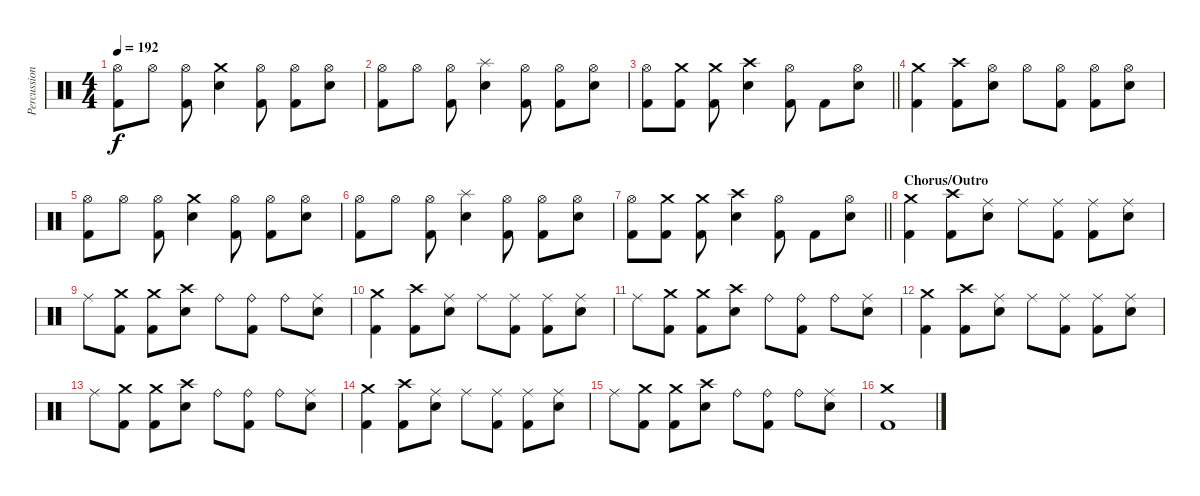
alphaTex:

\track ("Percussion" "Percussion") {instrument percussion}
\staff {score}
\articulation defaults
\ts (4 4)
\tempo 192
\clef neutral
\ks c
("Hi-Hat (open)" "Kick (hit) 2").8{dy f} "Hi-Hat (open)".8 ("Hi-Hat (open)" "Kick (hit) 2").8 ("Crash medium (hit)" "Electric Snare (hit)").4 ("Hi-Hat (open)" "Kick (hit) 2").8 ("Hi-Hat (open)" "Kick (hit) 2").8 ("Hi-Hat (open)" "Electric Snare (hit)").8 |
("Hi-Hat (open)" "Kick (hit) 2").8 "Hi-Hat (open)".8 ("Hi-Hat (open)" "Kick (hit) 2").8 ("Splash (hit)" "Electric Snare (hit)").4 ("Hi-Hat (open)" "Kick (hit) 2").8 ("Hi-Hat (open)" "Kick (hit) 2").8 ("Hi-Hat (open)" "Electric Snare (hit)").8 |
\barLineRight lightlight
("Hi-Hat (open)" "Kick (hit) 2").8 ("Crash medium (hit)" "Kick (hit) 2").8 ("Crash medium (hit)" "Kick (hit) 2").8 ("Crash high (hit)" "Electric Snare (hit)").4 ("Hi-Hat (open)" "Kick (hit) 2").8 "Kick (hit) 2".8 ("Hi-Hat (open)" "Electric Snare (hit)").8 |
("Crash medium (hit)" "Kick (hit) 2").4 ("Crash high (hit)" "Kick (hit) 2").8 ("Hi-Hat (open)" "Electric Snare (hit)").8 "Hi-Hat (open)".8 ("Hi-Hat (open)" "Kick (hit) 2").8 ("Hi-Hat (open)" "Kick (hit) 2").8 ("Hi-Hat (open)" "Electric Snare (hit)").8 |
("Hi-Hat (open)" "Kick (hit) 2").8 "Hi-Hat (open)".8 ("Hi-Hat (open)" "Kick (hit) 2").8 ("Crash medium (hit)" "Electric Snare (hit)").4 ("Hi-Hat (open)" "Kick (hit) 2").8 ("Hi-Hat (open)" "Kick (hit) 2").8 ("Hi-Hat (open)" "Electric Snare (hit)").8 |
("Hi-Hat (open)" "Kick (hit) 2").8 "Hi-Hat (open)".8 ("Hi-Hat (open)" "Kick (hit) 2").8 ("Splash (hit)" "Electric Snare (hit)").4 ("Hi-Hat (open)" "Kick (hit) 2").8 ("Hi-Hat (open)" "Kick (hit) 2").8 ("Hi-Hat (open)" "Electric Snare (hit)").8 |
\barLineRight lightlight
("Hi-Hat (open)" "Kick (hit) 2").8 ("Crash medium (hit)" "Kick (hit) 2").8 ("Crash medium (hit)" "Kick (hit) 2").8 ("Crash high (hit)" "Electric Snare (hit)").4 ("Hi-Hat (open)" "Kick (hit) 2").8 "Kick (hit) 2".8 ("Hi-Hat (open)" "Electric Snare (hit)").8 |
\section ("" "Chorus/Outro")
("Crash medium (hit)" "Kick (hit) 2").4 ("Crash high (hit)" "Kick (hit) 2").8 ("Ride (middle)" "Electric Snare (hit)").8 "Ride (middle)".8 ("Ride (middle)" "Kick (hit) 2").8 ("Ride (middle)" "Kick (hit) 2").8 ("Ride (middle)" "Electric Snare (hit)").8 |
"Ride (middle)".8 ("Crash medium (hit)" "Kick (hit) 2").8 ("Crash medium (hit)" "Kick (hit) 2").8 ("Crash high (hit)" "Electric Snare (hit)").8 "Ride (bell)".8 ("Ride (bell)" "Kick (hit) 2").8 "Ride (bell)".8 ("Ride (middle)" "Electric Snare (hit)").8 |
("Crash medium (hit)" "Kick (hit) 2").4 ("Crash high (hit)" "Kick (hit) 2").8 ("Ride (middle)" "Electric Snare (hit)").8 "Ride (middle)".8 ("Ride (middle)" "Kick (hit) 2").8 ("Ride (middle)" "Kick (hit) 2").8 ("Ride (middle)" "Electric Snare (hit)").8 |
"Ride (middle)".8 ("Crash medium (hit)" "Kick (hit) 2").8 ("Crash medium (hit)" "Kick (hit) 2").8 ("Crash high (hit)" "Electric Snare (hit)").8 "Ride (bell)".8 ("Ride (bell)" "Kick (hit) 2").8 "Ride (bell)".8 ("Ride (middle)" "Electric Snare (hit)").8 |
("Crash medium (hit)" "Kick (hit) 2").4 ("Crash high (hit)" "Kick (hit) 2").8 ("Ride (middle)" "Electric Snare (hit)").8 "Ride (middle)".8 ("Ride (middle)" "Kick (hit) 2").8 ("Ride (middle)" "Kick (hit) 2").8 ("Ride (middle)" "Electric Snare (hit)").8 |
"Ride (middle)".8 ("Crash medium (hit)" "Kick (hit) 2").8 ("Crash medium (hit)" "Kick (hit) 2").8 ("Crash high (hit)" "Electric Snare (hit)").8 "Ride (bell)".8 ("Ride (bell)" "Kick (hit) 2").8 "Ride (bell)".8 ("Ride (middle)" "Electric Snare (hit)").8 |
("Crash medium (hit)" "Kick (hit) 2").4 ("Crash high (hit)" "Kick (hit) 2").8 ("Ride (middle)" "Electric Snare (hit)").8 "Ride (middle)".8 ("Ride (middle)" "Kick (hit) 2").8 ("Ride (middle)" "Kick (hit) 2").8 ("Ride (middle)" "Electric Snare (hit)").8 |
"Ride (middle)".8 ("Crash medium (hit)" "Kick (hit) 2").8 ("Crash medium (hit)" "Kick (hit) 2").8 ("Crash high (hit)" "Electric Snare (hit)").8 "Ride (bell)".8 ("Ride (bell)" "Kick (hit) 2").8 "Ride (bell)".8 ("Ride (middle)" "Electric Snare (hit)").8 |
("Crash medium (hit)" "Kick (hit) 2").1
